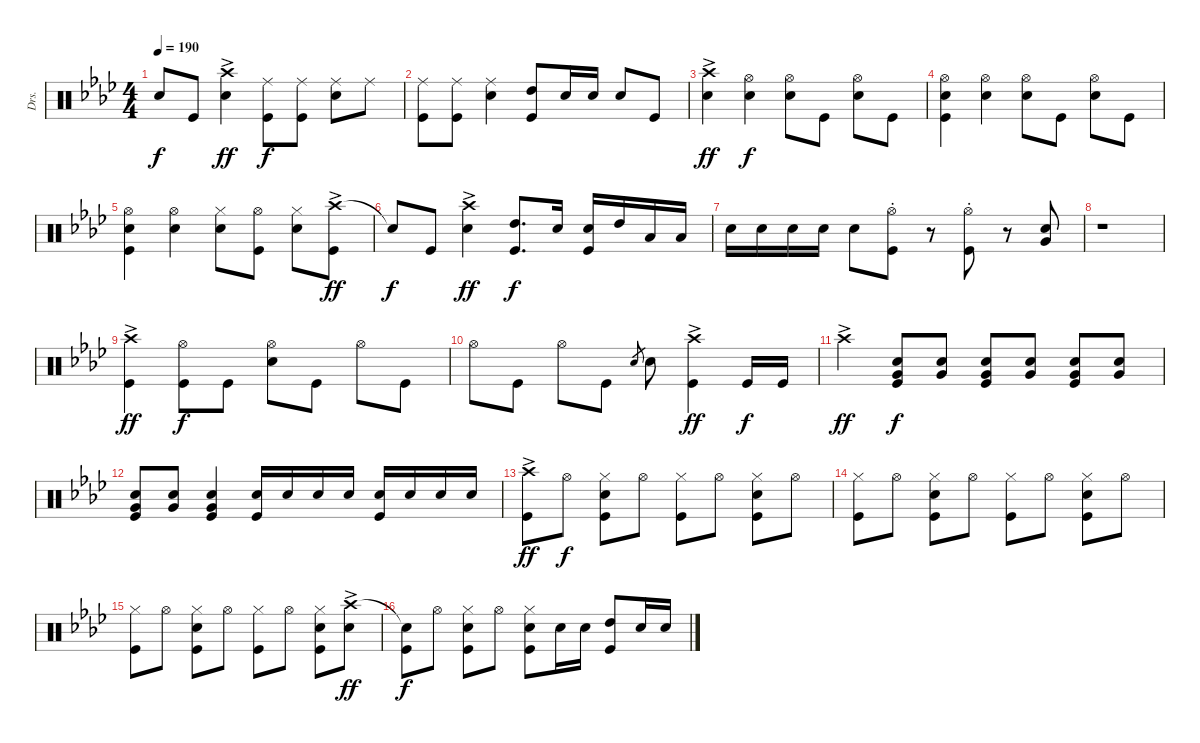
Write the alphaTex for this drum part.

\track ("Drs." "Drs.") {instrument percussion}
\staff {score}
\articulation defaults
\ts (4 4)
\tempo 190
\clef neutral
\ks ab "Snare (hit)"{t}.8{dy f} "Kick (hit)".8
("Crash high (hit)"{ac} "Snare (hit) 2").4{dy ff} ("Ride (middle)" "Kick (hit)").8{dy f} ("Ride (middle)" "Kick (hit)").8 ("Ride (middle)" "Snare (hit) 2").8 "Ride (middle)".8 |
("Ride (middle)" "Kick (hit)").8 ("Ride (middle)" "Kick (hit)").8 ("Ride (middle)" "Snare (hit) 2").4 ("High Tom (hit)" "Kick (hit)").8 "Snare (hit) 2".16 "Snare (hit) 2".16 "Snare (hit) 2".8 "Kick (hit)".8 |
("Crash high (hit)"{ac} "Snare (hit) 2").4{dy ff} ("Hi-Hat (open)" "Snare (hit) 2").4{dy f} ("Hi-Hat (open)" "Snare (hit) 2").8 "Kick (hit)".8 ("Hi-Hat (open)" "Snare (hit) 2").8 "Kick (hit)".8 |
("Hi-Hat (open)" "Snare (hit) 2" "Kick (hit)").4 ("Hi-Hat (open)" "Snare (hit) 2").4 ("Hi-Hat (open)" "Snare (hit) 2").8 "Kick (hit)".8 ("Hi-Hat (open)" "Snare (hit) 2").8 "Kick (hit)".8 |
("Hi-Hat (open)" "Snare (hit) 2" "Kick (hit)").4 ("Hi-Hat (open)" "Snare (hit) 2").4 ("Hi-Hat (closed)" "Snare (hit) 2").8 ("Hi-Hat (open)" "Kick (hit)").8 ("Hi-Hat (closed)" "Snare (hit) 2").8 ("Crash high (hit)"{ac} "Kick (hit)").8{dy ff} |
"Snare (hit)"{t}.8{dy f} "Kick (hit)".8 ("Crash high (hit)"{ac} "Snare (hit) 2").4{dy ff} ("High Tom (hit)" "Kick (hit)").8{d dy f} "Snare (hit) 2".16 ("Snare (hit) 2" "Kick (hit)").16 "High Tom (hit)".16 "Low Tom (hit)".16 "Low Tom (hit)".16 |
"Snare (hit) 2".16 "Snare (hit) 2".16 "Snare (hit) 2".16 "Snare (hit) 2".16 "Snare (hit) 2".8 ("Hi-Hat (open)"{st} "Kick (hit)"{st}).8 r.8 ("Hi-Hat (open)"{st} "Kick (hit)"{st}).8 r.8 ("Snare (hit) 2" "Very Low Tom (hit)").8 |
r.1 |
("Crash high (hit)"{ac} "Kick (hit)").4{dy ff} ("Hi-Hat (open)" "Kick (hit)").8{dy f} "Kick (hit)".8 ("Hi-Hat (open)" "Snare (hit) 2").8 "Kick (hit)".8 "Hi-Hat (open)".8 "Kick (hit)".8 |
"Hi-Hat (open)".8 "Kick (hit)".8 "Hi-Hat (open)".8 "Kick (hit)".8 "Snare (hit) 2".8{gr} "Snare (hit) 2".8 ("Crash high (hit)"{ac} "Kick (hit)").4{dy ff} "Kick (hit)".16{dy f} "Kick (hit)".16 |
"Crash high (hit)"{ac}.4{dy ff} ("Snare (hit) 2" "Very Low Tom (hit)" "Kick (hit)").8{dy f} ("Snare (hit) 2" "Very Low Tom (hit)").8 ("Snare (hit) 2" "Very Low Tom (hit)" "Kick (hit)").8 ("Snare (hit) 2" "Very Low Tom (hit)").8 ("Snare (hit) 2" "Very Low Tom (hit)" "Kick (hit)").8 ("Snare (hit) 2" "Very Low Tom (hit)").8 |
("Snare (hit) 2" "Very Low Tom (hit)" "Kick (hit)").8 ("Snare (hit) 2" "Very Low Tom (hit)").8 ("Snare (hit) 2" "Very Low Tom (hit)" "Kick (hit)").4 ("Snare (hit) 2" "Kick (hit)").16 "Snare (hit) 2".16 "Snare (hit) 2".16 "Snare (hit) 2".16 ("Snare (hit) 2" "Kick (hit)").16 "Snare (hit) 2".16 "Snare (hit) 2".16 "Snare (hit) 2".16 |
("Crash high (hit)"{ac} "Kick (hit)").8{dy ff} "Hi-Hat (open)".8{dy f} ("Hi-Hat (closed)" "Snare (hit) 2" "Kick (hit)").8 "Hi-Hat (open)".8 ("Hi-Hat (closed)" "Kick (hit)").8 "Hi-Hat (open)".8 ("Hi-Hat (closed)" "Snare (hit) 2" "Kick (hit)").8 "Hi-Hat (open)".8 |
("Hi-Hat (closed)" "Kick (hit)").8 "Hi-Hat (open)".8 ("Hi-Hat (closed)" "Snare (hit) 2" "Kick (hit)").8 "Hi-Hat (open)".8 ("Hi-Hat (closed)" "Kick (hit)").8 "Hi-Hat (open)".8 ("Hi-Hat (closed)" "Snare (hit) 2" "Kick (hit)").8 "Hi-Hat (open)".8 |
("Hi-Hat (closed)" "Kick (hit)").8 "Hi-Hat (open)".8 ("Hi-Hat (closed)" "Snare (hit) 2" "Kick (hit)").8 "Hi-Hat (open)".8 ("Hi-Hat (closed)" "Kick (hit)").8 "Hi-Hat (open)".8 ("Hi-Hat (closed)" "Snare (hit) 2" "Kick (hit)").8 ("Crash high (hit)"{ac} "Snare (hit) 2").8{dy ff} |
("Snare (hit)"{t} "Kick (hit)").8{dy f} "Hi-Hat (open)".8 ("Hi-Hat (closed)" "Snare (hit) 2" "Kick (hit)").8 "Hi-Hat (open)".8 ("Hi-Hat (closed)" "Snare (hit) 2" "Kick (hit)").8 "Snare (hit) 2".16 "Snare (hit) 2".16 ("High Tom (hit)" "Kick (hit)").8 "Snare (hit) 2".16 "Snare (hit) 2".16
